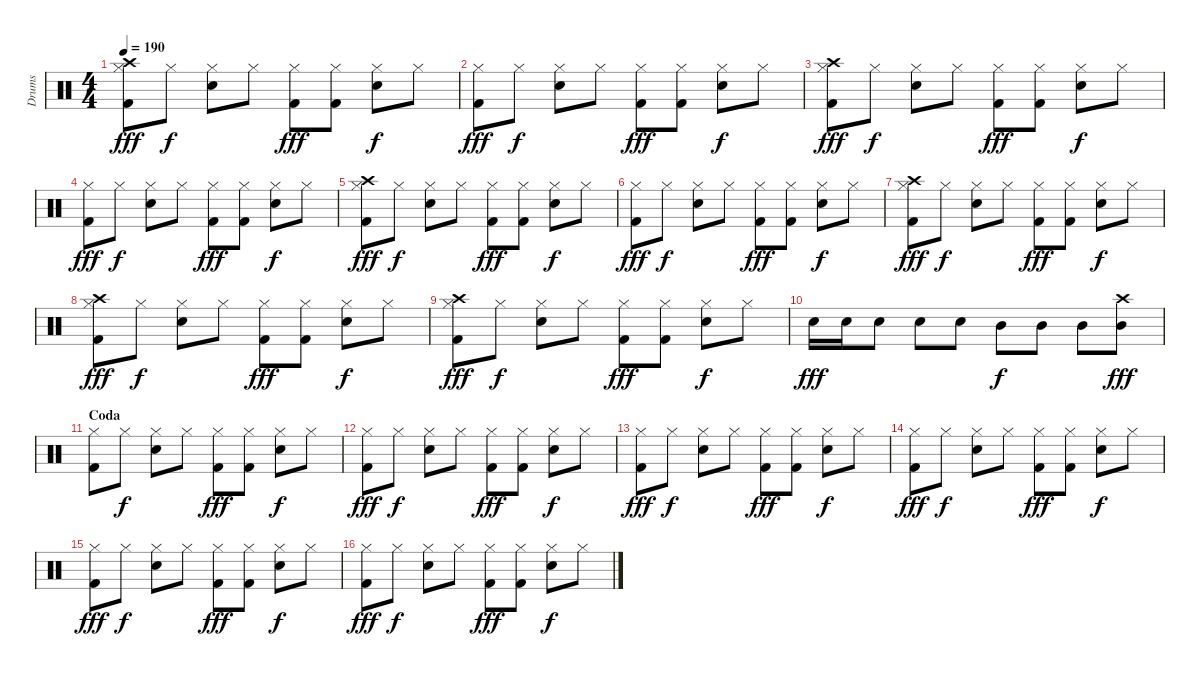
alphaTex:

\track ("Drums" "Drums") {instrument percussion}
\staff {score}
\articulation defaults
\ts (4 4)
\tempo 190
\clef neutral
\ks c
("Crash high (hit)" "Hi-Hat (closed)" "Kick (hit) 2").8{dy fff} "Hi-Hat (closed)".8{dy f} ("Hi-Hat (closed)" "Electric Snare (hit)").8 "Hi-Hat (closed)".8 ("Hi-Hat (closed)" "Kick (hit) 2").8{dy fff} ("Hi-Hat (closed)" "Kick (hit) 2").8 ("Hi-Hat (closed)" "Electric Snare (hit)").8{dy f} "Hi-Hat (closed)".8 |
("Hi-Hat (closed)" "Kick (hit) 2").8{dy fff} "Hi-Hat (closed)".8{dy f} ("Hi-Hat (closed)" "Electric Snare (hit)").8 "Hi-Hat (closed)".8 ("Hi-Hat (closed)" "Kick (hit) 2").8{dy fff} ("Hi-Hat (closed)" "Kick (hit) 2").8 ("Hi-Hat (closed)" "Electric Snare (hit)").8{dy f} "Hi-Hat (closed)".8 |
("Crash high (hit)" "Hi-Hat (closed)" "Kick (hit) 2").8{dy fff} "Hi-Hat (closed)".8{dy f} ("Hi-Hat (closed)" "Electric Snare (hit)").8 "Hi-Hat (closed)".8 ("Hi-Hat (closed)" "Kick (hit) 2").8{dy fff} ("Hi-Hat (closed)" "Kick (hit) 2").8 ("Hi-Hat (closed)" "Electric Snare (hit)").8{dy f} "Hi-Hat (closed)".8 |
("Hi-Hat (closed)" "Kick (hit) 2").8{dy fff} "Hi-Hat (closed)".8{dy f} ("Hi-Hat (closed)" "Electric Snare (hit)").8 "Hi-Hat (closed)".8 ("Hi-Hat (closed)" "Kick (hit) 2").8{dy fff} ("Hi-Hat (closed)" "Kick (hit) 2").8 ("Hi-Hat (closed)" "Electric Snare (hit)").8{dy f} "Hi-Hat (closed)".8 |
("Crash high (hit)" "Hi-Hat (closed)" "Kick (hit) 2").8{dy fff} "Hi-Hat (closed)".8{dy f} ("Hi-Hat (closed)" "Electric Snare (hit)").8 "Hi-Hat (closed)".8 ("Hi-Hat (closed)" "Kick (hit) 2").8{dy fff} ("Hi-Hat (closed)" "Kick (hit) 2").8 ("Hi-Hat (closed)" "Electric Snare (hit)").8{dy f} "Hi-Hat (closed)".8 |
("Hi-Hat (closed)" "Kick (hit) 2").8{dy fff} "Hi-Hat (closed)".8{dy f} ("Hi-Hat (closed)" "Electric Snare (hit)").8 "Hi-Hat (closed)".8 ("Hi-Hat (closed)" "Kick (hit) 2").8{dy fff} ("Hi-Hat (closed)" "Kick (hit) 2").8 ("Hi-Hat (closed)" "Electric Snare (hit)").8{dy f} "Hi-Hat (closed)".8 |
("Crash high (hit)" "Hi-Hat (closed)" "Kick (hit) 2").8{dy fff} "Hi-Hat (closed)".8{dy f} ("Hi-Hat (closed)" "Electric Snare (hit)").8 "Hi-Hat (closed)".8 ("Hi-Hat (closed)" "Kick (hit) 2").8{dy fff} ("Hi-Hat (closed)" "Kick (hit) 2").8 ("Hi-Hat (closed)" "Electric Snare (hit)").8{dy f} "Hi-Hat (closed)".8 |
("Crash high (hit)" "Hi-Hat (closed)" "Kick (hit) 2").8{dy fff} "Hi-Hat (closed)".8{dy f} ("Hi-Hat (closed)" "Electric Snare (hit)").8 "Hi-Hat (closed)".8 ("Hi-Hat (closed)" "Kick (hit) 2").8{dy fff} ("Hi-Hat (closed)" "Kick (hit) 2").8 ("Hi-Hat (closed)" "Electric Snare (hit)").8{dy f} "Hi-Hat (closed)".8 |
("Crash high (hit)" "Hi-Hat (closed)" "Kick (hit) 2").8{dy fff} "Hi-Hat (closed)".8{dy f} ("Hi-Hat (closed)" "Electric Snare (hit)").8 "Hi-Hat (closed)".8 ("Hi-Hat (closed)" "Kick (hit) 2").8{dy fff} ("Hi-Hat (closed)" "Kick (hit) 2").8 ("Hi-Hat (closed)" "Electric Snare (hit)").8{dy f} "Hi-Hat (closed)".8 |
"Electric Snare (hit)".16{dy fff} "Electric Snare (hit)".16 "Electric Snare (hit)".8 "Electric Snare (hit)".8 "Electric Snare (hit)".8 "Mid Tom (hit)".8{dy f} "Mid Tom (hit)".8 "Mid Tom (hit)".8 ("Crash high (hit)" "Mid Tom (hit)").8{dy fff} |
\section ("" "Coda")
("Hi-Hat (closed)" "Kick (hit) 2").8 "Hi-Hat (closed)".8{dy f} ("Hi-Hat (closed)" "Electric Snare (hit)").8 "Hi-Hat (closed)".8 ("Hi-Hat (closed)" "Kick (hit) 2").8{dy fff} ("Hi-Hat (closed)" "Kick (hit) 2").8 ("Hi-Hat (closed)" "Electric Snare (hit)").8{dy f} "Hi-Hat (closed)".8 |
("Hi-Hat (closed)" "Kick (hit) 2").8{dy fff} "Hi-Hat (closed)".8{dy f} ("Hi-Hat (closed)" "Electric Snare (hit)").8 "Hi-Hat (closed)".8 ("Hi-Hat (closed)" "Kick (hit) 2").8{dy fff} ("Hi-Hat (closed)" "Kick (hit) 2").8 ("Hi-Hat (closed)" "Electric Snare (hit)").8{dy f} "Hi-Hat (closed)".8 |
("Hi-Hat (closed)" "Kick (hit) 2").8{dy fff} "Hi-Hat (closed)".8{dy f} ("Hi-Hat (closed)" "Electric Snare (hit)").8 "Hi-Hat (closed)".8 ("Hi-Hat (closed)" "Kick (hit) 2").8{dy fff} ("Hi-Hat (closed)" "Kick (hit) 2").8 ("Hi-Hat (closed)" "Electric Snare (hit)").8{dy f} "Hi-Hat (closed)".8 |
("Hi-Hat (closed)" "Kick (hit) 2").8{dy fff} "Hi-Hat (closed)".8{dy f} ("Hi-Hat (closed)" "Electric Snare (hit)").8 "Hi-Hat (closed)".8 ("Hi-Hat (closed)" "Kick (hit) 2").8{dy fff} ("Hi-Hat (closed)" "Kick (hit) 2").8 ("Hi-Hat (closed)" "Electric Snare (hit)").8{dy f} "Hi-Hat (closed)".8 |
("Hi-Hat (closed)" "Kick (hit) 2").8{dy fff} "Hi-Hat (closed)".8{dy f} ("Hi-Hat (closed)" "Electric Snare (hit)").8 "Hi-Hat (closed)".8 ("Hi-Hat (closed)" "Kick (hit) 2").8{dy fff} ("Hi-Hat (closed)" "Kick (hit) 2").8 ("Hi-Hat (closed)" "Electric Snare (hit)").8{dy f} "Hi-Hat (closed)".8 |
("Hi-Hat (closed)" "Kick (hit) 2").8{dy fff} "Hi-Hat (closed)".8{dy f} ("Hi-Hat (closed)" "Electric Snare (hit)").8 "Hi-Hat (closed)".8 ("Hi-Hat (closed)" "Kick (hit) 2").8{dy fff} ("Hi-Hat (closed)" "Kick (hit) 2").8 ("Hi-Hat (closed)" "Electric Snare (hit)").8{dy f} "Hi-Hat (closed)".8
